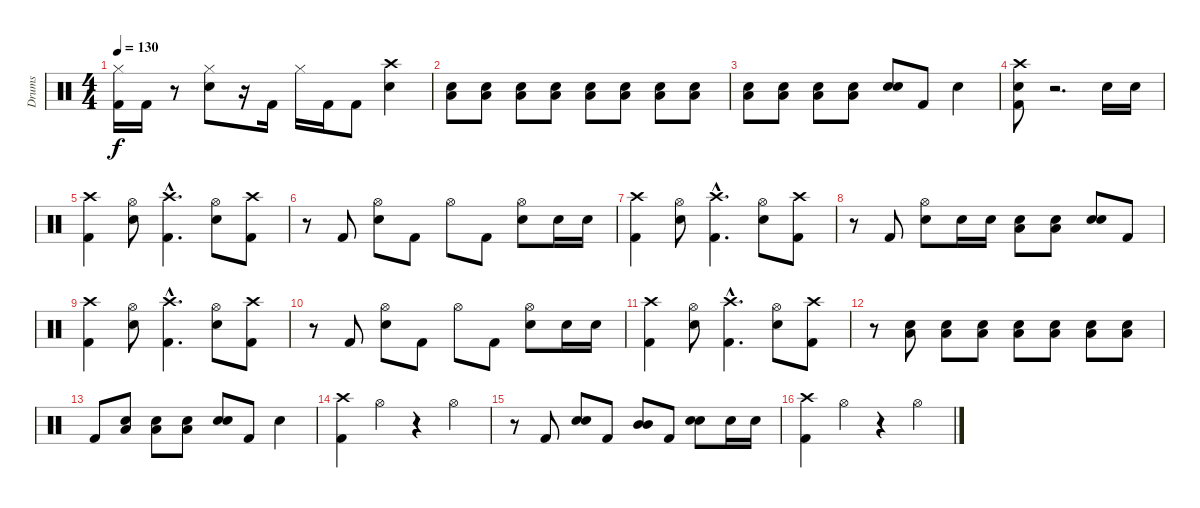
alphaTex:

\track ("Drums" "Drums") {instrument percussion}
\staff {score}
\articulation defaults
\ts (4 4)
\tempo 130
\clef neutral
\ks c
("Hi-Hat (closed)" "Kick (hit) 2").16{dy f} "Kick (hit) 2".16 r.8 ("Hi-Hat (closed)" "Snare (hit) 2").8 r.16 "Kick (hit) 2".16 "Hi-Hat (closed)".16 "Kick (hit) 2".16 "Kick (hit) 2".8 ("Crash high (hit)" "Snare (hit) 2").4 |
("Low Floor Tom (hit)" "Snare (hit) 2").8 ("Low Floor Tom (hit)" "Snare (hit) 2").8 ("Low Floor Tom (hit)" "Snare (hit) 2").8 ("Low Floor Tom (hit)" "Snare (hit) 2").8 ("Low Floor Tom (hit)" "Snare (hit) 2").8 ("Low Floor Tom (hit)" "Snare (hit) 2").8 ("Low Floor Tom (hit)" "Snare (hit) 2").8 ("Low Floor Tom (hit)" "Snare (hit) 2").8 |
("Low Floor Tom (hit)" "Snare (hit) 2").8 ("Low Floor Tom (hit)" "Snare (hit) 2").8 ("Low Floor Tom (hit)" "Snare (hit) 2").8 ("Low Floor Tom (hit)" "Snare (hit) 2").8 ("Snare (hit) 2" "Snare (hit) 2").8{bd 240} "Kick (hit) 2".8 "Snare (hit) 2".4 |
("Crash high (hit)" "Snare (hit) 2" "Kick (hit) 2").8 r.2{d} "Snare (hit) 2".16 "Snare (hit) 2".16 |
("Crash high (hit)" "Kick (hit) 2").4 ("Hi-Hat (open)" "Snare (hit) 2").8 ("Crash high (hit)"{hac} "Kick (hit) 2"{hac}).4{d} ("Hi-Hat (open)" "Snare (hit) 2").8 ("Crash high (hit)" "Kick (hit) 2").8 |
r.8 "Kick (hit) 2".8 ("Hi-Hat (open)" "Snare (hit) 2").8 "Kick (hit) 2".8 "Hi-Hat (open)".8 "Kick (hit) 2".8 ("Hi-Hat (open)" "Snare (hit) 2").8 "Snare (hit) 2".16 "Snare (hit) 2".16 |
("Crash high (hit)" "Kick (hit) 2").4 ("Hi-Hat (open)" "Snare (hit) 2").8 ("Crash high (hit)"{hac} "Kick (hit) 2"{hac}).4{d} ("Hi-Hat (open)" "Snare (hit) 2").8 ("Crash high (hit)" "Kick (hit) 2").8 |
r.8 "Kick (hit) 2".8 ("Hi-Hat (open)" "Snare (hit) 2").8 "Snare (hit) 2".16 "Snare (hit) 2".16 ("Low Floor Tom (hit)" "Snare (hit) 2").8 ("Low Floor Tom (hit)" "Snare (hit) 2").8 ("Snare (hit) 2" "Snare (hit) 2").8{bd 240} "Kick (hit) 2".8 |
("Crash high (hit)" "Kick (hit) 2").4 ("Hi-Hat (open)" "Snare (hit) 2").8 ("Crash high (hit)"{hac} "Kick (hit) 2"{hac}).4{d} ("Hi-Hat (open)" "Snare (hit) 2").8 ("Crash high (hit)" "Kick (hit) 2").8 |
r.8 "Kick (hit) 2".8 ("Hi-Hat (open)" "Snare (hit) 2").8 "Kick (hit) 2".8 "Hi-Hat (open)".8 "Kick (hit) 2".8 ("Hi-Hat (open)" "Snare (hit) 2").8 "Snare (hit) 2".16 "Snare (hit) 2".16 |
("Crash high (hit)" "Kick (hit) 2").4 ("Hi-Hat (open)" "Snare (hit) 2").8 ("Crash high (hit)"{hac} "Kick (hit) 2"{hac}).4{d} ("Hi-Hat (open)" "Snare (hit) 2").8 ("Crash high (hit)" "Kick (hit) 2").8 |
r.8 ("Low Floor Tom (hit)" "Snare (hit) 2").8 ("Low Floor Tom (hit)" "Snare (hit) 2").8 ("Low Floor Tom (hit)" "Snare (hit) 2").8 ("Low Floor Tom (hit)" "Snare (hit) 2").8 ("Low Floor Tom (hit)" "Snare (hit) 2").8 ("Low Floor Tom (hit)" "Snare (hit) 2").8 ("Low Floor Tom (hit)" "Snare (hit) 2").8 |
"Kick (hit) 2".8 ("Low Floor Tom (hit)" "Snare (hit) 2").8 ("Low Floor Tom (hit)" "Snare (hit) 2").8 ("Low Floor Tom (hit)" "Snare (hit) 2").8 ("Snare (hit) 2" "Snare (hit) 2").8{bd 240} "Kick (hit) 2".8 "Snare (hit) 2".4 |
("Crash high (hit)" "Kick (hit) 2").4 "Hi-Hat (open)".4 r.4 "Hi-Hat (open)".4 |
r.8 "Kick (hit) 2".8 ("Snare (hit) 2" "Snare (hit) 2").8{bd 240} "Kick (hit) 2".8 ("Mid Tom (hit)" "Mid Tom (hit)").8{bd 240} "Kick (hit) 2".8 ("Snare (hit) 2" "Snare (hit) 2").8{bd 240} "Snare (hit) 2".16 "Snare (hit) 2".16 |
("Crash high (hit)" "Kick (hit) 2").4 "Hi-Hat (open)".4 r.4 "Hi-Hat (open)".4
